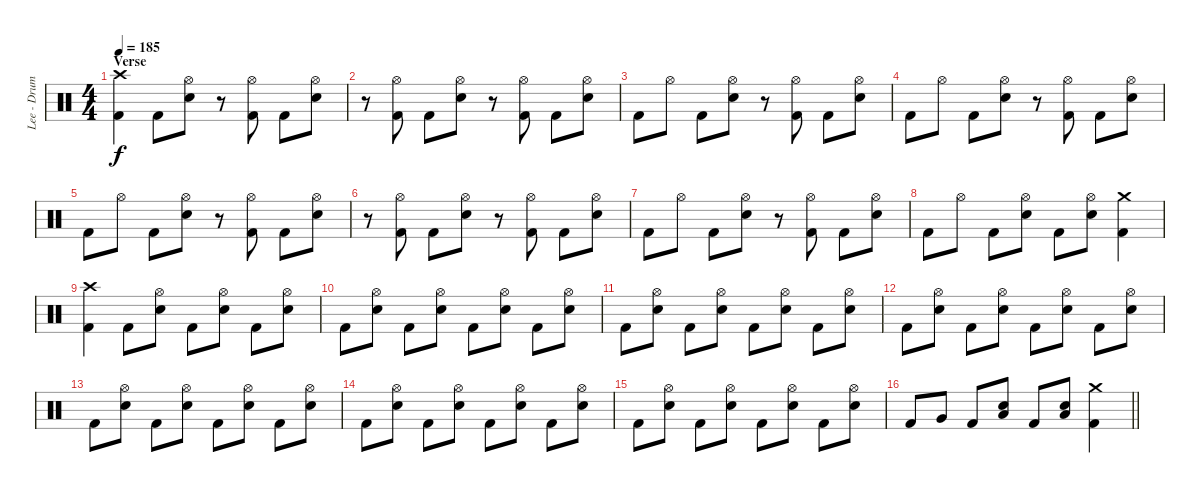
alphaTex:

\track ("Lee - Drums" "Lee - Drum") {instrument percussion}
\staff {score}
\articulation defaults
\ts (4 4)
\section ("" "Verse")
\tempo 185
\clef neutral
\ks c
("Crash high (hit)" "Kick (hit) 2").4{dy f} "Kick (hit) 2".8 ("Hi-Hat (open)" "Snare (hit) 2").8 r.8 ("Hi-Hat (open)" "Kick (hit) 2").8 "Kick (hit) 2".8 ("Hi-Hat (open)" "Snare (hit) 2").8 |
r.8 ("Hi-Hat (open)" "Kick (hit) 2").8 "Kick (hit) 2".8 ("Hi-Hat (open)" "Snare (hit) 2").8 r.8 ("Hi-Hat (open)" "Kick (hit) 2").8 "Kick (hit) 2".8 ("Hi-Hat (open)" "Snare (hit) 2").8 |
"Kick (hit) 2".8 "Hi-Hat (open)".8 "Kick (hit) 2".8 ("Hi-Hat (open)" "Snare (hit) 2").8 r.8 ("Hi-Hat (open)" "Kick (hit) 2").8 "Kick (hit) 2".8 ("Hi-Hat (open)" "Snare (hit) 2").8 |
"Kick (hit) 2".8 "Hi-Hat (open)".8 "Kick (hit) 2".8 ("Hi-Hat (open)" "Snare (hit) 2").8 r.8 ("Hi-Hat (open)" "Kick (hit) 2").8 "Kick (hit) 2".8 ("Hi-Hat (open)" "Snare (hit) 2").8 |
"Kick (hit) 2".8 "Hi-Hat (open)".8 "Kick (hit) 2".8 ("Hi-Hat (open)" "Snare (hit) 2").8 r.8 ("Hi-Hat (open)" "Kick (hit) 2").8 "Kick (hit) 2".8 ("Hi-Hat (open)" "Snare (hit) 2").8 |
r.8 ("Hi-Hat (open)" "Kick (hit) 2").8 "Kick (hit) 2".8 ("Hi-Hat (open)" "Snare (hit) 2").8 r.8 ("Hi-Hat (open)" "Kick (hit) 2").8 "Kick (hit) 2".8 ("Hi-Hat (open)" "Snare (hit) 2").8 |
"Kick (hit) 2".8 "Hi-Hat (open)".8 "Kick (hit) 2".8 ("Hi-Hat (open)" "Snare (hit) 2").8 r.8 ("Hi-Hat (open)" "Kick (hit) 2").8 "Kick (hit) 2".8 ("Hi-Hat (open)" "Snare (hit) 2").8 |
"Kick (hit) 2".8 "Hi-Hat (open)".8 "Kick (hit) 2".8 ("Hi-Hat (open)" "Snare (hit) 2").8 "Kick (hit) 2".8 ("Hi-Hat (open)" "Snare (hit) 2").8 ("Crash medium (hit)" "Kick (hit) 2").4 |
("Crash high (hit)" "Kick (hit) 2").4 "Kick (hit) 2".8 ("Hi-Hat (open)" "Snare (hit) 2").8 "Kick (hit) 2".8 ("Hi-Hat (open)" "Snare (hit) 2").8 "Kick (hit) 2".8 ("Hi-Hat (open)" "Snare (hit) 2").8 |
"Kick (hit) 2".8 ("Hi-Hat (open)" "Snare (hit) 2").8 "Kick (hit) 2".8 ("Hi-Hat (open)" "Snare (hit) 2").8 "Kick (hit) 2".8 ("Hi-Hat (open)" "Snare (hit) 2").8 "Kick (hit) 2".8 ("Hi-Hat (open)" "Snare (hit) 2").8 |
"Kick (hit) 2".8 ("Hi-Hat (open)" "Snare (hit) 2").8 "Kick (hit) 2".8 ("Hi-Hat (open)" "Snare (hit) 2").8 "Kick (hit) 2".8 ("Hi-Hat (open)" "Snare (hit) 2").8 "Kick (hit) 2".8 ("Hi-Hat (open)" "Snare (hit) 2").8 |
"Kick (hit) 2".8 ("Hi-Hat (open)" "Snare (hit) 2").8 "Kick (hit) 2".8 ("Hi-Hat (open)" "Snare (hit) 2").8 "Kick (hit) 2".8 ("Hi-Hat (open)" "Snare (hit) 2").8 "Kick (hit) 2".8 ("Hi-Hat (open)" "Snare (hit) 2").8 |
"Kick (hit) 2".8 ("Hi-Hat (open)" "Snare (hit) 2").8 "Kick (hit) 2".8 ("Hi-Hat (open)" "Snare (hit) 2").8 "Kick (hit) 2".8 ("Hi-Hat (open)" "Snare (hit) 2").8 "Kick (hit) 2".8 ("Hi-Hat (open)" "Snare (hit) 2").8 |
"Kick (hit) 2".8 ("Hi-Hat (open)" "Snare (hit) 2").8 "Kick (hit) 2".8 ("Hi-Hat (open)" "Snare (hit) 2").8 "Kick (hit) 2".8 ("Hi-Hat (open)" "Snare (hit) 2").8 "Kick (hit) 2".8 ("Hi-Hat (open)" "Snare (hit) 2").8 |
"Kick (hit) 2".8 ("Hi-Hat (open)" "Snare (hit) 2").8 "Kick (hit) 2".8 ("Hi-Hat (open)" "Snare (hit) 2").8 "Kick (hit) 2".8 ("Hi-Hat (open)" "Snare (hit) 2").8 "Kick (hit) 2".8 ("Hi-Hat (open)" "Snare (hit) 2").8 |
\barLineRight lightlight "Kick (hit) 2".8 "Very Low Tom (hit)".8 "Kick (hit) 2".8
("Snare (hit) 2" "Low Tom (hit)").8 "Kick (hit) 2".8 ("Snare (hit) 2" "Low Tom (hit)").8 ("Crash medium (hit)" "Kick (hit) 2").4
